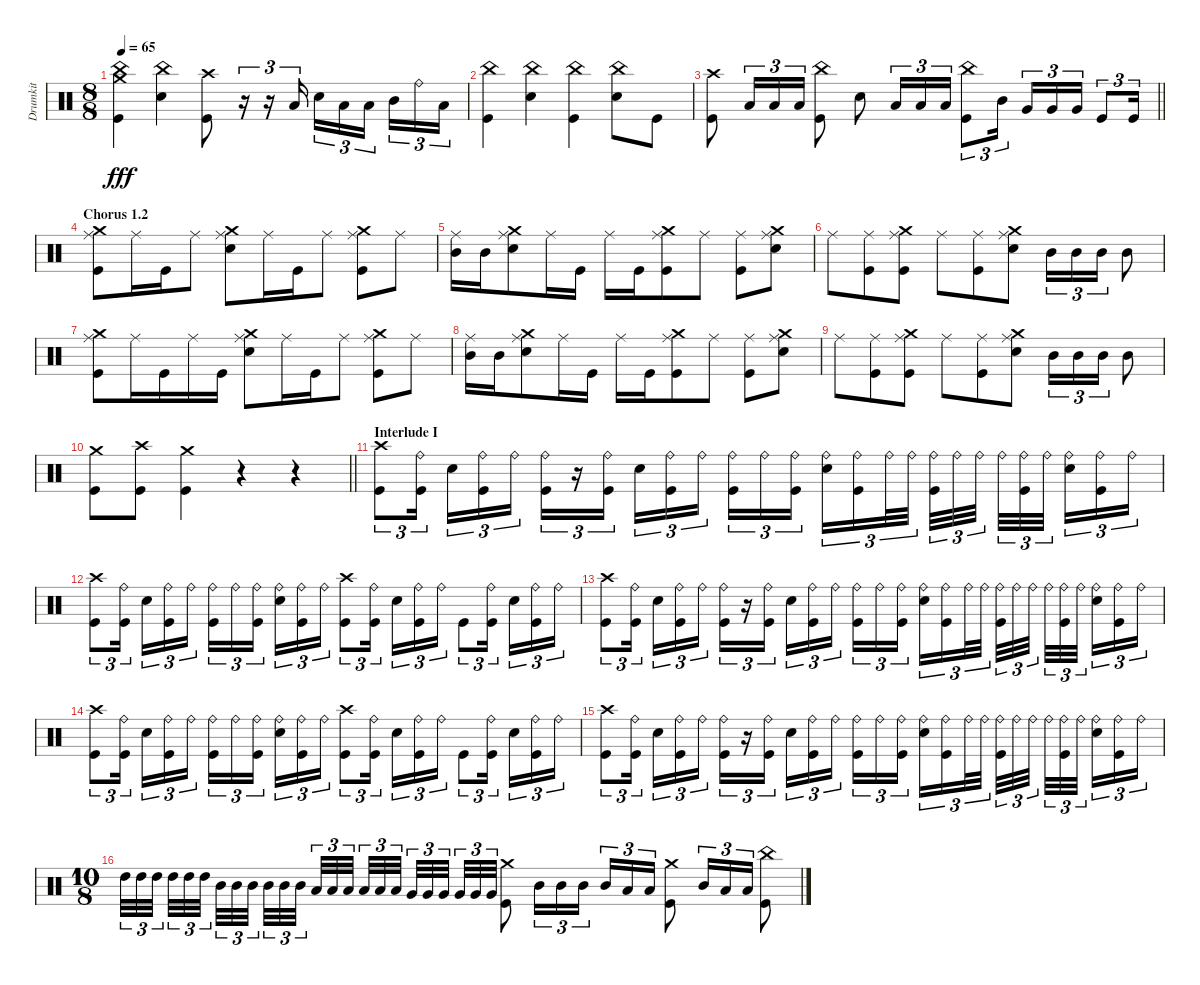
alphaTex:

\track ("Drumkit" "Drumkit") {instrument percussion}
\staff {score}
\articulation defaults
\ts (8 8)
\tempo 65
\clef neutral
\ks c
("Kick (hit)" "China (hit)" "Crash medium (hit)").4{dy fff} ("Snare (hit) 2" "China (hit)").4 ("Kick (hit)" "Crash high (hit)").8 r.16{tu (3 2)} r.16{tu (3 2)} "Low Tom (hit)".16{tu (3 2)} "Snare (hit) 2".16{tu (3 2)} "Low Tom (hit)".16{tu (3 2)} "Low Tom (hit)".16{tu (3 2)} "Mid Tom (hit)".16{tu (3 2)} "Ride (bell)".16{tu (3 2)} "Low Tom (hit)".16{tu (3 2)} |
("Kick (hit)" "China (hit)").4 ("Snare (hit) 2" "China (hit)").4 ("Kick (hit)" "China (hit)").4 ("Snare (hit) 2" "China (hit)").8 "Kick (hit)".8 |
\barLineRight lightlight
("Kick (hit)" "Crash high (hit)").8 "Low Tom (hit)".16{tu (3 2)} "Low Tom (hit)".16{tu (3 2)} "Low Tom (hit)".16{tu (3 2)} ("China (hit)" "Kick (hit)").8 "Snare (hit) 2".8 "Low Tom (hit)".16{tu (3 2)} "Low Tom (hit)".16{tu (3 2)} "Low Tom (hit)".16{tu (3 2)} ("China (hit)" "Kick (hit)").8{tu (3 2)} "Mid Tom (hit)".16{tu (3 2)} "Very Low Tom (hit)".16{tu (3 2)} "Very Low Tom (hit)".16{tu (3 2)} "Very Low Tom (hit)".16{tu (3 2)} "Kick (hit)".8{tu (3 2)} "Kick (hit)".16{tu (3 2)} |
\section ("" "Chorus 1.2")
("Ride (middle)" "Crash medium (hit)" "Kick (hit)").8 "Ride (middle)".16 "Kick (hit)".16 "Ride (middle)".8 ("Ride (middle)" "Crash medium (hit)" "Snare (hit) 2").8 "Ride (middle)".16 "Kick (hit)".16 "Ride (middle)".8 ("Ride (middle)" "Crash medium (hit)" "Kick (hit)").8 "Ride (middle)".8 |
("Ride (middle)" "Mid Tom (hit)").16 "Mid Tom (hit)".16 ("Ride (middle)" "Crash medium (hit)" "Snare (hit) 2").8 "Ride (middle)".16 "Kick (hit)".16 "Ride (middle)".16 "Kick (hit)".16 ("Ride (middle)" "Crash medium (hit)" "Kick (hit)").8 "Ride (middle)".8 ("Ride (middle)" "Kick (hit)").8 ("Ride (middle)" "Crash medium (hit)" "Snare (hit) 2").8 |
"Ride (middle)".8 ("Ride (middle)" "Kick (hit)").8 ("Ride (middle)" "Crash medium (hit)" "Kick (hit)").8 "Ride (middle)".8 ("Ride (middle)" "Kick (hit)").8 ("Ride (middle)" "Crash medium (hit)" "Snare (hit) 2").8 "Mid Tom (hit)".16{tu (3 2)} "Mid Tom (hit)".16{tu (3 2)} "Mid Tom (hit)".16{tu (3 2)} "Mid Tom (hit)".8 |
("Ride (middle)" "Crash medium (hit)" "Kick (hit)").8 "Ride (middle)".16 "Kick (hit)".16 "Ride (middle)".16 "Kick (hit)".16 ("Ride (middle)" "Crash medium (hit)" "Snare (hit) 2").8 "Ride (middle)".16 "Kick (hit)".16 "Ride (middle)".8 ("Ride (middle)" "Crash medium (hit)" "Kick (hit)").8 "Ride (middle)".8 |
("Ride (middle)" "Mid Tom (hit)").16 "Mid Tom (hit)".16 ("Ride (middle)" "Crash medium (hit)" "Snare (hit) 2").8 "Ride (middle)".16 "Kick (hit)".16 "Ride (middle)".16 "Kick (hit)".16 ("Ride (middle)" "Crash medium (hit)" "Kick (hit)").8 "Ride (middle)".8 ("Ride (middle)" "Kick (hit)").8 ("Ride (middle)" "Crash medium (hit)" "Snare (hit) 2").8 |
"Ride (middle)".8 ("Ride (middle)" "Kick (hit)").8 ("Ride (middle)" "Crash medium (hit)" "Kick (hit)").8 "Ride (middle)".8 ("Ride (middle)" "Kick (hit)").8 ("Ride (middle)" "Crash medium (hit)" "Snare (hit) 2").8 "Mid Tom (hit)".16{tu (3 2)} "Mid Tom (hit)".16{tu (3 2)} "Mid Tom (hit)".16{tu (3 2)} "Mid Tom (hit)".8 |
\barLineRight lightlight
("Kick (hit)" "Crash medium (hit)").8 ("Kick (hit)" "Crash high (hit)").8 ("Kick (hit)" "Crash medium (hit)").4 r.4 r.4 |
\section ("" "Interlude I")
("Kick (hit)" "Crash high (hit)").8{tu (3 2)} ("Ride (bell)" "Kick (hit)").16{tu (3 2)} "Snare (hit) 2".16{tu (3 2)} ("Ride (bell)" "Kick (hit)").16{tu (3 2)} "Ride (bell)".16{tu (3 2)} ("Ride (bell)" "Kick (hit)").16{tu (3 2)} r.16{tu (3 2)} ("Ride (bell)" "Kick (hit)").16{tu (3 2)} "Snare (hit) 2".16{tu (3 2)} ("Ride (bell)" "Kick (hit)").16{tu (3 2)} "Ride (bell)".16{tu (3 2)} ("Ride (bell)" "Kick (hit)").16{tu (3 2)} "Ride (bell)".16{tu (3 2)} ("Ride (bell)" "Kick (hit)").16{tu (3 2)} ("Ride (bell)" "Snare (hit) 2").16{tu (3 2)} ("Ride (bell)" "Kick (hit)").16{tu (3 2)} "Ride (bell)".32{tu (3 2)} "Ride (bell)".32{tu (3 2)} ("Ride (bell)" "Kick (hit)").32{tu (3 2)} "Ride (bell)".32{tu (3 2)} "Ride (bell)".32{tu (3 2) beam splitsecondary} "Ride (bell)".32{tu (3 2)} ("Ride (bell)" "Kick (hit)").32{tu (3 2)} "Ride (bell)".32{tu (3 2)} ("Snare (hit) 2" "Ride (bell)").16{tu (3 2)} ("Ride (bell)" "Kick (hit)").16{tu (3 2)} "Ride (bell)".16{tu (3 2)} |
("Kick (hit)" "Crash high (hit)").8{tu (3 2)} ("Ride (bell)" "Kick (hit)").16{tu (3 2)} "Snare (hit) 2".16{tu (3 2)} ("Ride (bell)" "Kick (hit)").16{tu (3 2)} "Ride (bell)".16{tu (3 2)} ("Kick (hit)" "Ride (bell)").16{tu (3 2)} "Ride (bell)".16{tu (3 2)} ("Ride (bell)" "Kick (hit)").16{tu (3 2)} ("Ride (bell)" "Snare (hit) 2").16{tu (3 2)} ("Ride (bell)" "Kick (hit)").16{tu (3 2)} "Ride (bell)".16{tu (3 2)} ("Kick (hit)" "Crash high (hit)").8{tu (3 2)} ("Ride (bell)" "Kick (hit)").16{tu (3 2)} "Snare (hit) 2".16{tu (3 2)} ("Ride (bell)" "Kick (hit)").16{tu (3 2)} "Ride (bell)".16{tu (3 2)} "Kick (hit)".8{tu (3 2)} ("Ride (bell)" "Kick (hit)").16{tu (3 2)} "Snare (hit) 2".16{tu (3 2)} ("Ride (bell)" "Kick (hit)").16{tu (3 2)} "Ride (bell)".16{tu (3 2)} |
("Kick (hit)" "Crash high (hit)").8{tu (3 2)} ("Ride (bell)" "Kick (hit)").16{tu (3 2)} "Snare (hit) 2".16{tu (3 2)} ("Ride (bell)" "Kick (hit)").16{tu (3 2)} "Ride (bell)".16{tu (3 2)} ("Ride (bell)" "Kick (hit)").16{tu (3 2)} r.16{tu (3 2)} ("Ride (bell)" "Kick (hit)").16{tu (3 2)} "Snare (hit) 2".16{tu (3 2)} ("Ride (bell)" "Kick (hit)").16{tu (3 2)} "Ride (bell)".16{tu (3 2)} ("Ride (bell)" "Kick (hit)").16{tu (3 2)} "Ride (bell)".16{tu (3 2)} ("Ride (bell)" "Kick (hit)").16{tu (3 2)} ("Ride (bell)" "Snare (hit) 2").16{tu (3 2)} ("Ride (bell)" "Kick (hit)").16{tu (3 2)} "Ride (bell)".32{tu (3 2)} "Ride (bell)".32{tu (3 2)} ("Ride (bell)" "Kick (hit)").32{tu (3 2)} "Ride (bell)".32{tu (3 2)} "Ride (bell)".32{tu (3 2) beam splitsecondary} "Ride (bell)".32{tu (3 2)} ("Ride (bell)" "Kick (hit)").32{tu (3 2)} "Ride (bell)".32{tu (3 2)} ("Snare (hit) 2" "Ride (bell)").16{tu (3 2)} ("Ride (bell)" "Kick (hit)").16{tu (3 2)} "Ride (bell)".16{tu (3 2)} |
("Kick (hit)" "Crash high (hit)").8{tu (3 2)} ("Ride (bell)" "Kick (hit)").16{tu (3 2)} "Snare (hit) 2".16{tu (3 2)} ("Ride (bell)" "Kick (hit)").16{tu (3 2)} "Ride (bell)".16{tu (3 2)} ("Kick (hit)" "Ride (bell)").16{tu (3 2)} "Ride (bell)".16{tu (3 2)} ("Ride (bell)" "Kick (hit)").16{tu (3 2)} ("Ride (bell)" "Snare (hit) 2").16{tu (3 2)} ("Ride (bell)" "Kick (hit)").16{tu (3 2)} "Ride (bell)".16{tu (3 2)} ("Kick (hit)" "Crash high (hit)").8{tu (3 2)} ("Ride (bell)" "Kick (hit)").16{tu (3 2)} "Snare (hit) 2".16{tu (3 2)} ("Ride (bell)" "Kick (hit)").16{tu (3 2)} "Ride (bell)".16{tu (3 2)} "Kick (hit)".8{tu (3 2)} ("Ride (bell)" "Kick (hit)").16{tu (3 2)} "Snare (hit) 2".16{tu (3 2)} ("Ride (bell)" "Kick (hit)").16{tu (3 2)} "Ride (bell)".16{tu (3 2)} |
("Kick (hit)" "Crash high (hit)").8{tu (3 2)} ("Ride (bell)" "Kick (hit)").16{tu (3 2)} "Snare (hit) 2".16{tu (3 2)} ("Ride (bell)" "Kick (hit)").16{tu (3 2)} "Ride (bell)".16{tu (3 2)} ("Ride (bell)" "Kick (hit)").16{tu (3 2)} r.16{tu (3 2)} ("Ride (bell)" "Kick (hit)").16{tu (3 2)} "Snare (hit) 2".16{tu (3 2)} ("Ride (bell)" "Kick (hit)").16{tu (3 2)} "Ride (bell)".16{tu (3 2)} ("Ride (bell)" "Kick (hit)").16{tu (3 2)} "Ride (bell)".16{tu (3 2)} ("Ride (bell)" "Kick (hit)").16{tu (3 2)} ("Ride (bell)" "Snare (hit) 2").16{tu (3 2)} ("Ride (bell)" "Kick (hit)").16{tu (3 2)} "Ride (bell)".32{tu (3 2)} "Ride (bell)".32{tu (3 2)} ("Ride (bell)" "Kick (hit)").32{tu (3 2)} "Ride (bell)".32{tu (3 2)} "Ride (bell)".32{tu (3 2) beam splitsecondary} "Ride (bell)".32{tu (3 2)} ("Ride (bell)" "Kick (hit)").32{tu (3 2)} "Ride (bell)".32{tu (3 2)} ("Snare (hit) 2" "Ride (bell)").16{tu (3 2)} ("Ride (bell)" "Kick (hit)").16{tu (3 2)} "Ride (bell)".16{tu (3 2)} |
\ts (10 8)
"High Tom (hit)".32{tu (3 2)} "High Tom (hit)".32{tu (3 2)} "High Tom (hit)".32{tu (3 2) beam splitsecondary} "High Tom (hit)".32{tu (3 2)} "High Tom (hit)".32{tu (3 2)} "High Tom (hit)".32{tu (3 2)} "Mid Tom (hit)".32{tu (3 2)} "Mid Tom (hit)".32{tu (3 2)} "Mid Tom (hit)".32{tu (3 2) beam splitsecondary} "Mid Tom (hit)".32{tu (3 2)} "Mid Tom (hit)".32{tu (3 2)} "Mid Tom (hit)".32{tu (3 2)} "Low Tom (hit)".32{tu (3 2)} "Low Tom (hit)".32{tu (3 2)} "Low Tom (hit)".32{tu (3 2) beam splitsecondary} "Low Tom (hit)".32{tu (3 2)} "Low Tom (hit)".32{tu (3 2)} "Low Tom (hit)".32{tu (3 2)} "Very Low Tom (hit)".32{tu (3 2)} "Very Low Tom (hit)".32{tu (3 2)} "Very Low Tom (hit)".32{tu (3 2) beam splitsecondary} "Very Low Tom (hit)".32{tu (3 2)} "Very Low Tom (hit)".32{tu (3 2)} "Very Low Tom (hit)".32{tu (3 2)} ("Kick (hit)" "Crash medium (hit)").8 "Mid Tom (hit)".16{tu (3 2)} "Mid Tom (hit)".16{tu (3 2)} "Mid Tom (hit)".16{tu (3 2)} "Mid Tom (hit)".16{tu (3 2)} "Low Tom (hit)".16{tu (3 2)} "Low Tom (hit)".16{tu (3 2)} ("Kick (hit)" "Crash medium (hit)").8 "Mid Tom (hit)".16{tu (3 2)} "Low Tom (hit)".16{tu (3 2)} "Low Tom (hit)".16{tu (3 2)} ("China (hit)" "Kick (hit)").8
